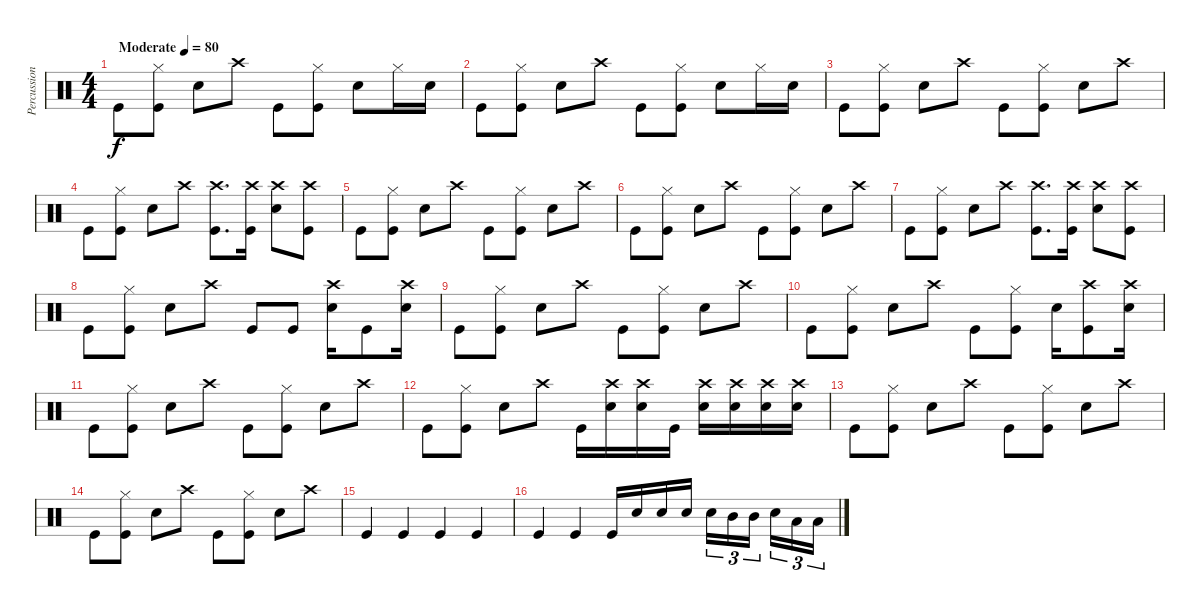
\track ("Percussions" "Percussion") {instrument percussion}
\staff {score}
\articulation defaults
\ts (4 4)
\tempo (80 "Moderate")
\clef neutral
\ks c "Kick (hit)".8{dy f}
("Kick (hit)" "Hi-Hat (closed)").8 "Snare (hit) 2".8 "Crash high (hit)".8 "Kick (hit)".8 ("Kick (hit)" "Hi-Hat (closed)").8 "Snare (hit) 2".8 "Hi-Hat (closed)".16 "Snare (hit) 2".16 |
"Kick (hit)".8 ("Kick (hit)" "Hi-Hat (closed)").8 "Snare (hit) 2".8 "Crash high (hit)".8 "Kick (hit)".8 ("Kick (hit)" "Hi-Hat (closed)").8 "Snare (hit) 2".8 "Hi-Hat (closed)".16 "Snare (hit) 2".16 |
"Kick (hit)".8 ("Kick (hit)" "Hi-Hat (closed)").8 "Snare (hit) 2".8 "Crash high (hit)".8 "Kick (hit)".8 ("Kick (hit)" "Hi-Hat (closed)").8 "Snare (hit) 2".8 "Crash high (hit)".8 |
"Kick (hit)".8 ("Kick (hit)" "Hi-Hat (closed)").8 "Snare (hit) 2".8 "Crash high (hit)".8 ("Kick (hit)" "Crash high (hit)").8{d} ("Kick (hit)" "Crash high (hit)").16 ("Snare (hit) 2" "Crash high (hit)").8 ("Kick (hit)" "Crash high (hit)").8 |
"Kick (hit)".8 ("Kick (hit)" "Hi-Hat (closed)").8 "Snare (hit) 2".8 "Crash high (hit)".8 "Kick (hit)".8 ("Kick (hit)" "Hi-Hat (closed)").8 "Snare (hit) 2".8 "Crash high (hit)".8 |
"Kick (hit)".8 ("Kick (hit)" "Hi-Hat (closed)").8 "Snare (hit) 2".8 "Crash high (hit)".8 "Kick (hit)".8 ("Kick (hit)" "Hi-Hat (closed)").8 "Snare (hit) 2".8 "Crash high (hit)".8 |
"Kick (hit)".8 ("Kick (hit)" "Hi-Hat (closed)").8 "Snare (hit) 2".8 "Crash high (hit)".8 ("Kick (hit)" "Crash high (hit)").8{d} ("Kick (hit)" "Crash high (hit)").16 ("Snare (hit) 2" "Crash high (hit)").8 ("Kick (hit)" "Crash high (hit)").8 |
"Kick (hit)".8 ("Kick (hit)" "Hi-Hat (closed)").8 "Snare (hit) 2".8 "Crash high (hit)".8 "Kick (hit)".8 "Kick (hit)".8 ("Snare (hit) 2" "Crash high (hit)").16 "Kick (hit)".8 ("Snare (hit) 2" "Crash high (hit)").16 |
"Kick (hit)".8 ("Kick (hit)" "Hi-Hat (closed)").8 "Snare (hit) 2".8 "Crash high (hit)".8 "Kick (hit)".8 ("Kick (hit)" "Hi-Hat (closed)").8 "Snare (hit) 2".8 "Crash high (hit)".8 |
"Kick (hit)".8 ("Kick (hit)" "Hi-Hat (closed)").8 "Snare (hit) 2".8 "Crash high (hit)".8 "Kick (hit)".8 ("Kick (hit)" "Hi-Hat (closed)").8 "Snare (hit) 2".16 ("Kick (hit)" "Crash high (hit)").8 ("Snare (hit) 2" "Crash high (hit)").16 |
"Kick (hit)".8 ("Kick (hit)" "Hi-Hat (closed)").8 "Snare (hit) 2".8 "Crash high (hit)".8 "Kick (hit)".8 ("Kick (hit)" "Hi-Hat (closed)").8 "Snare (hit) 2".8 "Crash high (hit)".8 |
"Kick (hit)".8 ("Kick (hit)" "Hi-Hat (closed)").8 "Snare (hit) 2".8 "Crash high (hit)".8 "Kick (hit)".16 ("Snare (hit) 2" "Crash high (hit)").16 ("Snare (hit) 2" "Crash high (hit)").16 "Kick (hit)".16 ("Snare (hit) 2" "Crash high (hit)").16 ("Snare (hit) 2" "Crash high (hit)").16 ("Snare (hit) 2" "Crash high (hit)").16 ("Snare (hit) 2" "Crash high (hit)").16 |
"Kick (hit)".8 ("Kick (hit)" "Hi-Hat (closed)").8 "Snare (hit) 2".8 "Crash high (hit)".8 "Kick (hit)".8 ("Kick (hit)" "Hi-Hat (closed)").8 "Snare (hit) 2".8 "Crash high (hit)".8 |
"Kick (hit)".8 ("Kick (hit)" "Hi-Hat (closed)").8 "Snare (hit) 2".8 "Crash high (hit)".8 "Kick (hit)".8 ("Kick (hit)" "Hi-Hat (closed)").8 "Snare (hit) 2".8 "Crash high (hit)".8 |
"Kick (hit)".4 "Kick (hit)".4 "Kick (hit)".4 "Kick (hit)".4 |
"Kick (hit)".4 "Kick (hit)".4 "Kick (hit)".16 "Snare (hit) 2".16 "Snare (hit) 2".16 "Snare (hit) 2".16 "Snare (hit) 2".16{tu (3 2)} "Mid Tom (hit)".16{tu (3 2)} "Mid Tom (hit)".16{tu (3 2) beam splitsecondary} "Snare (hit) 2".16{tu (3 2)} "Low Tom (hit)".16{tu (3 2)} "Low Tom (hit)".16{tu (3 2)}
